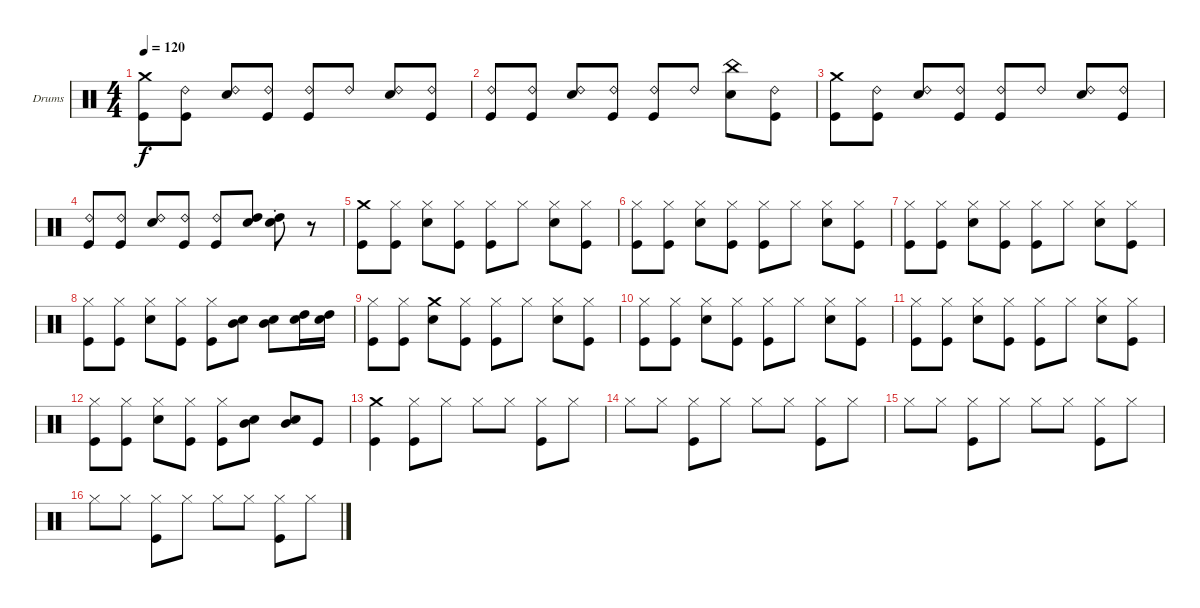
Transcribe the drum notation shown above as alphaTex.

\defaultSystemsLayout 4
\bracketExtendMode groupsimilarinstruments
\firstSystemTrackNameOrientation horizontal
\otherSystemsTrackNameOrientation horizontal
\track ("Stefan Schwarzmann" "Drums") {instrument percussion}
\staff {score}
\articulation defaults
\ts (4 4)
\tempo 120
\clef neutral
\ks c
("Crash medium (hit)" "Kick (hit)").8{dy f} ("Ride (bell) 2" "Kick (hit)").8 ("Ride (bell) 2" "Snare (hit) 2").8 ("Ride (bell) 2" "Kick (hit)").8 ("Ride (bell) 2" "Kick (hit)").8 "Ride (bell) 2".8 ("Ride (bell) 2" "Snare (hit) 2").8 ("Ride (bell) 2" "Kick (hit)").8 |
("Ride (bell) 2" "Kick (hit)").8 ("Ride (bell) 2" "Kick (hit)").8 ("Ride (bell) 2" "Snare (hit) 2").8 ("Ride (bell) 2" "Kick (hit)").8 ("Ride (bell) 2" "Kick (hit)").8 "Ride (bell) 2".8 ("China (hit)" "Snare (hit) 2").8 ("Ride (bell) 2" "Kick (hit)").8 |
("Crash medium (hit)" "Kick (hit)").8 ("Ride (bell) 2" "Kick (hit)").8 ("Ride (bell) 2" "Snare (hit) 2").8 ("Ride (bell) 2" "Kick (hit)").8 ("Ride (bell) 2" "Kick (hit)").8 "Ride (bell) 2".8 ("Ride (bell) 2" "Snare (hit) 2").8 ("Ride (bell) 2" "Kick (hit)").8 |
("Ride (bell) 2" "Kick (hit)").8 ("Ride (bell) 2" "Kick (hit)").8 ("Ride (bell) 2" "Snare (hit) 2").8 ("Ride (bell) 2" "Kick (hit)").8 ("Kick (hit)" "Ride (bell) 2").8 ("High Tom (hit)" "Snare (hit) 2").8 ("High Tom (hit)"{st} "Snare (hit) 2"{st}).8 r.8 |
("Crash medium (hit)" "Kick (hit)").8 ("Hi-Hat (closed)" "Kick (hit)").8 ("Hi-Hat (closed)" "Snare (hit) 2").8 ("Hi-Hat (closed)" "Kick (hit)").8 ("Hi-Hat (closed)" "Kick (hit)").8 "Hi-Hat (closed)".8 ("Hi-Hat (closed)" "Snare (hit) 2").8 ("Hi-Hat (closed)" "Kick (hit)").8 |
("Hi-Hat (closed)" "Kick (hit)").8 ("Hi-Hat (closed)" "Kick (hit)").8 ("Hi-Hat (closed)" "Snare (hit) 2").8 ("Hi-Hat (closed)" "Kick (hit)").8 ("Hi-Hat (closed)" "Kick (hit)").8 "Hi-Hat (closed)".8 ("Hi-Hat (closed)" "Snare (hit) 2").8 ("Hi-Hat (closed)" "Kick (hit)").8 |
("Hi-Hat (closed)" "Kick (hit)").8 ("Hi-Hat (closed)" "Kick (hit)").8 ("Hi-Hat (closed)" "Snare (hit) 2").8 ("Hi-Hat (closed)" "Kick (hit)").8 ("Hi-Hat (closed)" "Kick (hit)").8 "Hi-Hat (closed)".8 ("Hi-Hat (closed)" "Snare (hit) 2").8 ("Hi-Hat (closed)" "Kick (hit)").8 |
("Hi-Hat (closed)" "Kick (hit)").8 ("Hi-Hat (closed)" "Kick (hit)").8 ("Hi-Hat (closed)" "Snare (hit) 2").8 ("Hi-Hat (closed)" "Kick (hit)").8 ("Hi-Hat (closed)" "Kick (hit)").8 ("Mid Tom (hit)" "Snare (hit) 2").8 ("Mid Tom (hit)" "Snare (hit) 2").8 ("High Tom (hit)" "Snare (hit) 2").16 ("High Tom (hit)" "Snare (hit) 2").16 |
("Hi-Hat (closed)" "Kick (hit)").8 ("Hi-Hat (closed)" "Kick (hit)").8 ("Crash medium (hit)" "Snare (hit) 2").8 ("Hi-Hat (closed)" "Kick (hit)").8 ("Hi-Hat (closed)" "Kick (hit)").8 "Hi-Hat (closed)".8 ("Hi-Hat (closed)" "Snare (hit) 2").8 ("Hi-Hat (closed)" "Kick (hit)").8 |
("Hi-Hat (closed)" "Kick (hit)").8 ("Hi-Hat (closed)" "Kick (hit)").8 ("Hi-Hat (closed)" "Snare (hit) 2").8 ("Hi-Hat (closed)" "Kick (hit)").8 ("Hi-Hat (closed)" "Kick (hit)").8 "Hi-Hat (closed)".8 ("Hi-Hat (closed)" "Snare (hit) 2").8 ("Hi-Hat (closed)" "Kick (hit)").8 |
("Hi-Hat (closed)" "Kick (hit)").8 ("Hi-Hat (closed)" "Kick (hit)").8 ("Hi-Hat (closed)" "Snare (hit) 2").8 ("Hi-Hat (closed)" "Kick (hit)").8 ("Hi-Hat (closed)" "Kick (hit)").8 "Hi-Hat (closed)".8 ("Hi-Hat (closed)" "Snare (hit) 2").8 ("Hi-Hat (closed)" "Kick (hit)").8 |
("Hi-Hat (closed)" "Kick (hit)").8 ("Hi-Hat (closed)" "Kick (hit)").8 ("Hi-Hat (closed)" "Snare (hit) 2").8 ("Hi-Hat (closed)" "Kick (hit)").8 ("Hi-Hat (closed)" "Kick (hit)").8 ("Mid Tom (hit)" "Snare (hit) 2").8 ("Mid Tom (hit)" "Snare (hit) 2").8 "Kick (hit)".8 |
("Crash medium (hit)" "Kick (hit)").4 ("Hi-Hat (closed)" "Kick (hit)").8 "Hi-Hat (closed)".8 "Hi-Hat (closed)".8 "Hi-Hat (closed)".8 ("Hi-Hat (closed)" "Kick (hit)").8 "Hi-Hat (closed)".8 |
"Hi-Hat (closed)".8 "Hi-Hat (closed)".8 ("Hi-Hat (closed)" "Kick (hit)").8 "Hi-Hat (closed)".8 "Hi-Hat (closed)".8 "Hi-Hat (closed)".8 ("Hi-Hat (closed)" "Kick (hit)").8 "Hi-Hat (closed)".8 |
"Hi-Hat (closed)".8 "Hi-Hat (closed)".8 ("Hi-Hat (closed)" "Kick (hit)").8 "Hi-Hat (closed)".8 "Hi-Hat (closed)".8 "Hi-Hat (closed)".8 ("Hi-Hat (closed)" "Kick (hit)").8 "Hi-Hat (closed)".8 |
"Hi-Hat (closed)".8 "Hi-Hat (closed)".8 ("Hi-Hat (closed)" "Kick (hit)").8 "Hi-Hat (closed)".8 "Hi-Hat (closed)".8 "Hi-Hat (closed)".8 ("Hi-Hat (closed)" "Kick (hit)").8 "Hi-Hat (closed)".8
